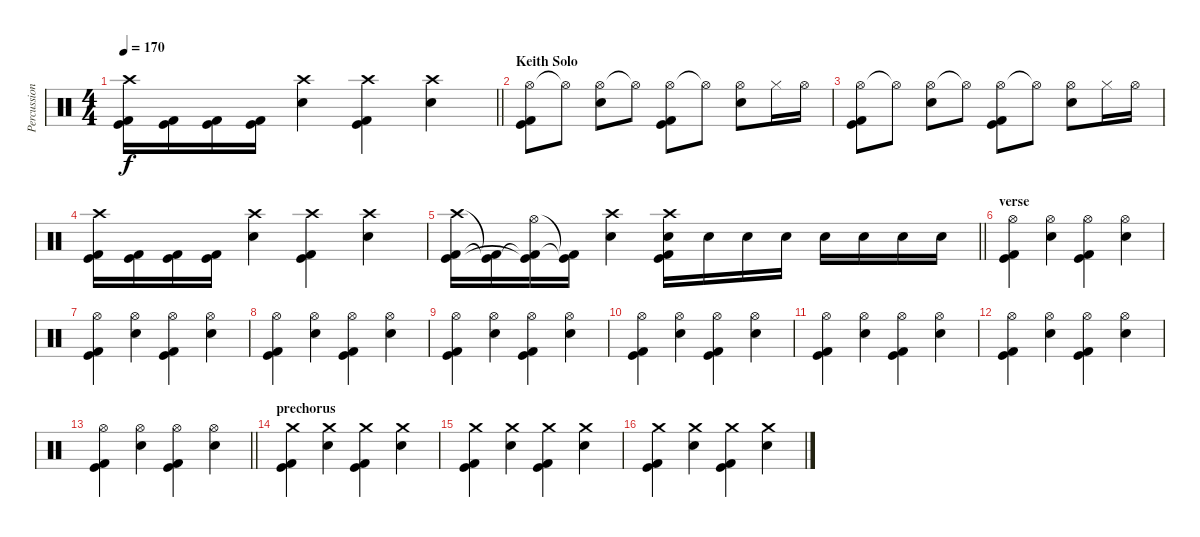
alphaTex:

\track ("Percussion" "Percussion") {instrument percussion}
\staff {score}
\articulation defaults
\ts (4 4)
\tempo 170
\clef neutral
\barLineRight lightlight
\ks c
("Crash high (hit)" "Kick (hit) 2" "Kick (hit)").16{dy f} ("Kick (hit) 2" "Kick (hit)").16 ("Kick (hit) 2" "Kick (hit)").16 ("Kick (hit) 2" "Kick (hit)").16 ("Crash high (hit)" "Electric Snare (hit)").4 ("Crash high (hit)" "Kick (hit) 2" "Kick (hit)").4 ("Crash high (hit)" "Electric Snare (hit)").4 |
\section ("" "Keith Solo")
("Hi-Hat (open)" "Kick (hit) 2" "Kick (hit)").8 "Hi-Hat (open)"{t}.8 ("Hi-Hat (open)" "Electric Snare (hit)").8 "Hi-Hat (open)"{t}.8 ("Hi-Hat (open)" "Kick (hit) 2" "Kick (hit)").8 "Hi-Hat (open)"{t}.8 ("Hi-Hat (open)" "Electric Snare (hit)").8 "Hi-Hat (closed)".16 "Hi-Hat (open)".16 |
("Hi-Hat (open)" "Kick (hit) 2" "Kick (hit)").8 "Hi-Hat (open)"{t}.8 ("Hi-Hat (open)" "Electric Snare (hit)").8 "Hi-Hat (open)"{t}.8 ("Hi-Hat (open)" "Kick (hit) 2" "Kick (hit)").8 "Hi-Hat (open)"{t}.8 ("Hi-Hat (open)" "Electric Snare (hit)").8 "Hi-Hat (closed)".16 "Hi-Hat (open)".16 |
("Crash high (hit)" "Kick (hit) 2" "Kick (hit)").16 ("Kick (hit) 2" "Kick (hit)").16 ("Kick (hit) 2" "Kick (hit)").16 ("Kick (hit) 2" "Kick (hit)").16 ("Crash high (hit)" "Electric Snare (hit)").4 ("Crash high (hit)" "Kick (hit) 2" "Kick (hit)").4 ("Crash high (hit)" "Electric Snare (hit)").4 |
\barLineRight lightlight
("Crash high (hit)" "Kick (hit) 2" "Kick (hit)").16 ("Kick (hit) 2"{t} "Kick (hit)"{t}).16 ("Hi-Hat (open)" "Kick (hit) 2"{t} "Kick (hit)"{t}).16 ("Kick (hit) 2"{t} "Kick (hit)"{t}).16 ("Crash high (hit)" "Electric Snare (hit)").4 ("Crash high (hit)" "Electric Snare (hit)" "Kick (hit) 2" "Kick (hit)").16 "Electric Snare (hit)".16 "Electric Snare (hit)".16 "Electric Snare (hit)".16 "Electric Snare (hit)".16 "Electric Snare (hit)".16 "Electric Snare (hit)".16 "Electric Snare (hit)".16 |
\section ("" "verse")
("Hi-Hat (open)" "Kick (hit) 2" "Kick (hit)").4 ("Hi-Hat (open)" "Electric Snare (hit)").4 ("Hi-Hat (open)" "Kick (hit) 2" "Kick (hit)").4 ("Hi-Hat (open)" "Electric Snare (hit)").4 |
("Hi-Hat (open)" "Kick (hit) 2" "Kick (hit)").4 ("Hi-Hat (open)" "Electric Snare (hit)").4 ("Hi-Hat (open)" "Kick (hit) 2" "Kick (hit)").4 ("Hi-Hat (open)" "Electric Snare (hit)").4 |
("Hi-Hat (open)" "Kick (hit) 2" "Kick (hit)").4 ("Hi-Hat (open)" "Electric Snare (hit)").4 ("Hi-Hat (open)" "Kick (hit) 2" "Kick (hit)").4 ("Hi-Hat (open)" "Electric Snare (hit)").4 |
("Hi-Hat (open)" "Kick (hit) 2" "Kick (hit)").4 ("Hi-Hat (open)" "Electric Snare (hit)").4 ("Hi-Hat (open)" "Kick (hit) 2" "Kick (hit)").4 ("Hi-Hat (open)" "Electric Snare (hit)").4 |
("Hi-Hat (open)" "Kick (hit) 2" "Kick (hit)").4 ("Hi-Hat (open)" "Electric Snare (hit)").4 ("Hi-Hat (open)" "Kick (hit) 2" "Kick (hit)").4 ("Hi-Hat (open)" "Electric Snare (hit)").4 |
("Hi-Hat (open)" "Kick (hit) 2" "Kick (hit)").4 ("Hi-Hat (open)" "Electric Snare (hit)").4 ("Hi-Hat (open)" "Kick (hit) 2" "Kick (hit)").4 ("Hi-Hat (open)" "Electric Snare (hit)").4 |
("Hi-Hat (open)" "Kick (hit) 2" "Kick (hit)").4 ("Hi-Hat (open)" "Electric Snare (hit)").4 ("Hi-Hat (open)" "Kick (hit) 2" "Kick (hit)").4 ("Hi-Hat (open)" "Electric Snare (hit)").4 |
\barLineRight lightlight
("Hi-Hat (open)" "Kick (hit) 2" "Kick (hit)").4 ("Hi-Hat (open)" "Electric Snare (hit)").4 ("Hi-Hat (open)" "Kick (hit) 2" "Kick (hit)").4 ("Hi-Hat (open)" "Electric Snare (hit)").4 |
\section ("" "prechorus")
("Crash medium (hit)" "Kick (hit) 2" "Kick (hit)").4 ("Crash medium (hit)" "Electric Snare (hit)").4 ("Crash medium (hit)" "Kick (hit) 2" "Kick (hit)").4 ("Crash medium (hit)" "Electric Snare (hit)").4 |
("Crash medium (hit)" "Kick (hit) 2" "Kick (hit)").4 ("Crash medium (hit)" "Electric Snare (hit)").4 ("Crash medium (hit)" "Kick (hit) 2" "Kick (hit)").4 ("Crash medium (hit)" "Electric Snare (hit)").4 |
("Crash medium (hit)" "Kick (hit) 2" "Kick (hit)").4 ("Crash medium (hit)" "Electric Snare (hit)").4 ("Crash medium (hit)" "Kick (hit) 2" "Kick (hit)").4 ("Crash medium (hit)" "Electric Snare (hit)").4
